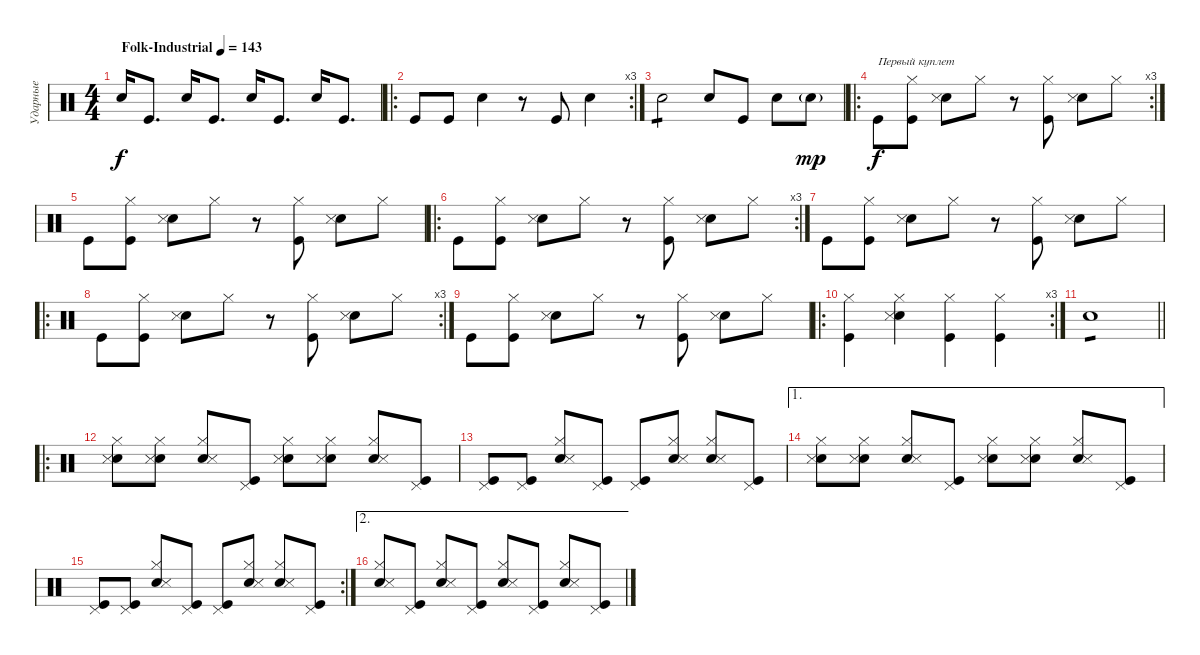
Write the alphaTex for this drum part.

\track ("Ударные" "Ударные") {instrument percussion}
\staff {score}
\articulation defaults
\ts (4 4)
\tempo (143 "Folk-Industrial")
\clef neutral
\ks c "Snare (hit) 2".16{dy f} "Kick (hit)".8{d} "Snare (hit) 2".16 "Kick (hit)".8{d} "Snare (hit) 2".16 "Kick (hit)".8{d} "Snare (hit) 2".16 "Kick (hit)".8{d}
|
\ro
\rc 3 "Kick (hit)".8 "Kick (hit)".8 "Snare (hit) 2".4
r.8 "Kick (hit)".8 "Snare (hit) 2".4 |
"Snare (hit) 2".2{tp 1} "Snare (hit) 2".8 "Kick (hit)".8 "Snare (hit) 2".8 "Snare (hit) 2"{g}.8{dy mp} |
\ro
\rc 3 "Kick (hit)".8{txt "Первый куплет" dy f}
("Kick (hit)" "Hi-Hat (closed)").8 ("Snare (hit) 2" "Snare (side stick) 3").8 "Hi-Hat (closed)".8 r.8 ("Kick (hit)" "Hi-Hat (closed)").8 ("Snare (hit) 2" "Snare (side stick) 3").8 "Hi-Hat (closed)".8 |
"Kick (hit)".8 ("Kick (hit)" "Hi-Hat (closed)").8 ("Snare (hit) 2" "Snare (side stick) 3").8 "Hi-Hat (closed)".8 r.8 ("Kick (hit)" "Hi-Hat (closed)").8 ("Snare (hit) 2" "Snare (side stick) 3").8 "Hi-Hat (closed)".8 |
\ro
\rc 3 "Kick (hit)".8
("Kick (hit)" "Hi-Hat (closed)").8 ("Snare (hit) 2" "Snare (side stick) 3").8 "Hi-Hat (closed)".8 r.8 ("Kick (hit)" "Hi-Hat (closed)").8 ("Snare (hit) 2" "Snare (side stick) 3").8 "Hi-Hat (closed)".8 |
"Kick (hit)".8 ("Kick (hit)" "Hi-Hat (closed)").8 ("Snare (hit) 2" "Snare (side stick) 3").8 "Hi-Hat (closed)".8 r.8 ("Kick (hit)" "Hi-Hat (closed)").8 ("Snare (hit) 2" "Snare (side stick) 3").8 "Hi-Hat (closed)".8 |
\ro
\rc 3 "Kick (hit)".8
("Kick (hit)" "Hi-Hat (closed)").8 ("Snare (hit) 2" "Snare (side stick) 3").8 "Hi-Hat (closed)".8 r.8 ("Kick (hit)" "Hi-Hat (closed)").8 ("Snare (hit) 2" "Snare (side stick) 3").8 "Hi-Hat (closed)".8 |
"Kick (hit)".8 ("Kick (hit)" "Hi-Hat (closed)").8 ("Snare (hit) 2" "Snare (side stick) 3").8 "Hi-Hat (closed)".8 r.8 ("Kick (hit)" "Hi-Hat (closed)").8 ("Snare (hit) 2" "Snare (side stick) 3").8 "Hi-Hat (closed)".8 |
\ro
\rc 3
("Kick (hit)" "Hi-Hat (closed)").4 ("Snare (hit) 2" "Hi-Hat (closed)" "Snare (side stick) 3").4 ("Kick (hit)" "Hi-Hat (closed)").4 ("Kick (hit)" "Hi-Hat (closed)").4 |
\barLineRight lightlight "Snare (hit) 2".1{tp 1}
|
\ro
("Snare (hit) 2" "Hi-Hat (closed)" "Snare (side stick) 3").8 ("Snare (hit) 2" "Hi-Hat (closed)" "Snare (side stick) 3").8 ("Snare (hit) 2" "Hi-Hat (closed)" "Snare (side stick) 3").8 ("Kick (hit)" "Pedal Hi-Hat (hit)").8 ("Snare (hit) 2" "Hi-Hat (closed)" "Snare (side stick) 3").8 ("Snare (hit) 2" "Hi-Hat (closed)" "Snare (side stick) 3").8 ("Snare (hit) 2" "Hi-Hat (closed)" "Snare (side stick) 3").8 ("Kick (hit)" "Pedal Hi-Hat (hit)").8 |
("Kick (hit)" "Pedal Hi-Hat (hit)").8 ("Kick (hit)" "Pedal Hi-Hat (hit)").8 ("Snare (hit) 2" "Hi-Hat (closed)" "Snare (side stick) 3").8 ("Kick (hit)" "Pedal Hi-Hat (hit)").8 ("Kick (hit)" "Pedal Hi-Hat (hit)").8 ("Snare (hit) 2" "Hi-Hat (closed)" "Snare (side stick) 3").8 ("Snare (hit) 2" "Hi-Hat (closed)" "Snare (side stick) 3").8 ("Kick (hit)" "Pedal Hi-Hat (hit)").8 |
\ae 1
("Snare (hit) 2" "Hi-Hat (closed)" "Snare (side stick) 3").8 ("Snare (hit) 2" "Hi-Hat (closed)" "Snare (side stick) 3").8 ("Snare (hit) 2" "Hi-Hat (closed)" "Snare (side stick) 3").8 ("Kick (hit)" "Pedal Hi-Hat (hit)").8 ("Snare (hit) 2" "Hi-Hat (closed)" "Snare (side stick) 3").8 ("Snare (hit) 2" "Hi-Hat (closed)" "Snare (side stick) 3").8 ("Snare (hit) 2" "Hi-Hat (closed)" "Snare (side stick) 3").8 ("Kick (hit)" "Pedal Hi-Hat (hit)").8 |
\rc 2
("Kick (hit)" "Pedal Hi-Hat (hit)").8 ("Kick (hit)" "Pedal Hi-Hat (hit)").8 ("Snare (hit) 2" "Hi-Hat (closed)" "Snare (side stick) 3").8 ("Kick (hit)" "Pedal Hi-Hat (hit)").8 ("Kick (hit)" "Pedal Hi-Hat (hit)").8 ("Snare (hit) 2" "Hi-Hat (closed)" "Snare (side stick) 3").8 ("Snare (hit) 2" "Hi-Hat (closed)" "Snare (side stick) 3").8 ("Kick (hit)" "Pedal Hi-Hat (hit)").8 |
\ae 2
("Snare (hit) 2" "Hi-Hat (closed)" "Snare (side stick) 3").8 ("Kick (hit)" "Pedal Hi-Hat (hit)").8 ("Snare (hit) 2" "Hi-Hat (closed)" "Snare (side stick) 3").8 ("Kick (hit)" "Pedal Hi-Hat (hit)").8 ("Snare (hit) 2" "Hi-Hat (closed)" "Snare (side stick) 3").8 ("Kick (hit)" "Pedal Hi-Hat (hit)").8 ("Snare (hit) 2" "Hi-Hat (closed)" "Snare (side stick) 3").8 ("Kick (hit)" "Pedal Hi-Hat (hit)").8
